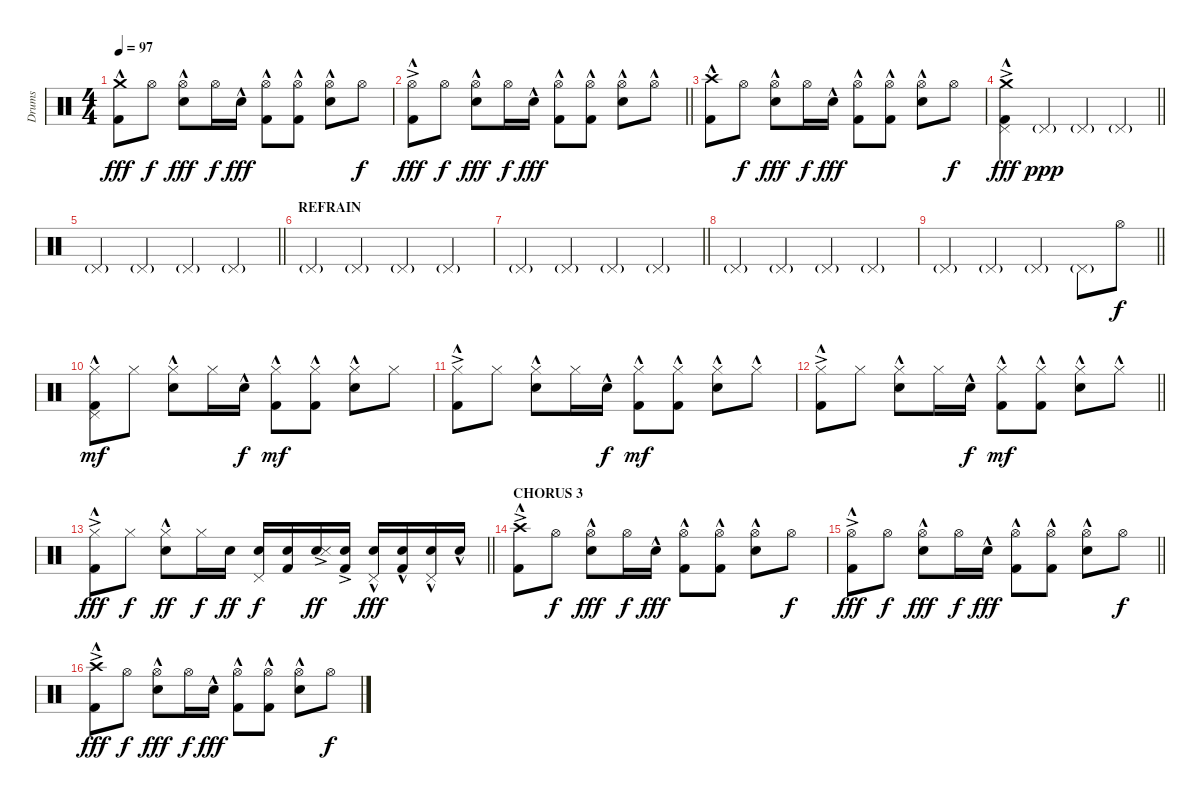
\track ("Drums" "Drums") {instrument percussion}
\staff {score}
\articulation defaults
\ts (4 4)
\tempo 97
\clef neutral
\ks c
("Crash medium (hit)" "Kick (hit) 2"{hac}).8{dy fff} "Hi-Hat (open)".8{dy f} ("Hi-Hat (open)" "Snare (hit) 2"{hac}).8{dy fff} "Hi-Hat (open)".16{dy f} "Snare (hit) 2"{hac}.16{dy fff} ("Hi-Hat (open)" "Kick (hit) 2"{hac}).8 ("Hi-Hat (open)" "Kick (hit) 2"{hac}).8 ("Hi-Hat (open)" "Snare (hit) 2"{hac}).8 "Hi-Hat (open)".8{dy f} |
\barLineRight lightlight
("Hi-Hat (open)"{ac} "Kick (hit) 2"{hac}).8{dy fff} "Hi-Hat (open)".8{dy f} ("Hi-Hat (open)" "Snare (hit) 2"{hac}).8{dy fff} "Hi-Hat (open)".16{dy f} "Snare (hit) 2"{hac}.16{dy fff} ("Hi-Hat (open)" "Kick (hit) 2"{hac}).8 ("Hi-Hat (open)" "Kick (hit) 2"{hac}).8 ("Hi-Hat (open)" "Snare (hit) 2"{hac}).8 "Hi-Hat (open)"{hac}.8 |
("Crash high (hit)"{hac} "Kick (hit) 2"{hac}).8 "Hi-Hat (open)".8{dy f} ("Hi-Hat (open)" "Snare (hit) 2"{hac}).8{dy fff} "Hi-Hat (open)".16{dy f} "Snare (hit) 2"{hac}.16{dy fff} ("Hi-Hat (open)" "Kick (hit) 2"{hac}).8 ("Hi-Hat (open)" "Kick (hit) 2"{hac}).8 ("Hi-Hat (open)" "Snare (hit) 2"{hac}).8 "Hi-Hat (open)".8{dy f} |
\barLineRight lightlight
("Crash medium (hit)"{ac} "Pedal Hi-Hat (hit)" "Kick (hit) 2"{hac}).4{dy fff} "Pedal Hi-Hat (hit)"{g}.4{dy ppp} "Pedal Hi-Hat (hit)"{g}.4 "Pedal Hi-Hat (hit)"{g}.4 |
\barLineRight lightlight "Pedal Hi-Hat (hit)"{g}.4 "Pedal Hi-Hat (hit)"{g}.4 "Pedal Hi-Hat (hit)"{g}.4 "Pedal Hi-Hat (hit)"{g}.4
|
\section ("" "REFRAIN")
"Pedal Hi-Hat (hit)"{g}.4 "Pedal Hi-Hat (hit)"{g}.4 "Pedal Hi-Hat (hit)"{g}.4 "Pedal Hi-Hat (hit)"{g}.4 |
\barLineRight lightlight "Pedal Hi-Hat (hit)"{g}.4 "Pedal Hi-Hat (hit)"{g}.4 "Pedal Hi-Hat (hit)"{g}.4 "Pedal Hi-Hat (hit)"{g}.4
|
"Pedal Hi-Hat (hit)"{g}.4 "Pedal Hi-Hat (hit)"{g}.4 "Pedal Hi-Hat (hit)"{g}.4 "Pedal Hi-Hat (hit)"{g}.4 |
\barLineRight lightlight "Pedal Hi-Hat (hit)"{g}.4 "Pedal Hi-Hat (hit)"{g}.4 "Pedal Hi-Hat (hit)"{g}.4 "Pedal Hi-Hat (hit)"{g}.8 "Hi-Hat (open)".8{dy f}
|
("Hi-Hat (closed)" "Pedal Hi-Hat (hit)" "Kick (hit) 2"{hac}).8{dy mf} "Hi-Hat (closed)".8 ("Hi-Hat (closed)" "Snare (hit) 2"{hac}).8 "Hi-Hat (closed)".16 "Snare (hit) 2"{hac}.16{dy f} ("Hi-Hat (closed)" "Kick (hit) 2"{hac}).8{dy mf} ("Hi-Hat (closed)" "Kick (hit) 2"{hac}).8 ("Hi-Hat (closed)" "Snare (hit) 2"{hac}).8 "Hi-Hat (closed)".8 |
("Hi-Hat (closed)"{ac} "Kick (hit) 2"{hac}).8 "Hi-Hat (closed)".8 ("Hi-Hat (closed)" "Snare (hit) 2"{hac}).8 "Hi-Hat (closed)".16 "Snare (hit) 2"{hac}.16{dy f} ("Hi-Hat (closed)" "Kick (hit) 2"{hac}).8{dy mf} ("Hi-Hat (closed)" "Kick (hit) 2"{hac}).8 ("Hi-Hat (closed)" "Snare (hit) 2"{hac}).8 "Hi-Hat (closed)"{hac}.8 |
\barLineRight lightlight
("Hi-Hat (closed)"{ac} "Kick (hit) 2"{hac}).8 "Hi-Hat (closed)".8 ("Hi-Hat (closed)" "Snare (hit) 2"{hac}).8 "Hi-Hat (closed)".16 "Snare (hit) 2"{hac}.16{dy f} ("Hi-Hat (closed)" "Kick (hit) 2"{hac}).8{dy mf} ("Hi-Hat (closed)" "Kick (hit) 2"{hac}).8 ("Hi-Hat (closed)" "Snare (hit) 2"{hac}).8 "Hi-Hat (closed)"{hac}.8 |
\barLineRight lightlight
("Hi-Hat (closed)"{ac} "Kick (hit) 2"{hac}).8{dy fff} "Hi-Hat (closed)".8{dy f} ("Hi-Hat (closed)" "Snare (hit) 2"{hac}).8{dy ff} "Hi-Hat (closed)".16{dy f} "Snare (hit) 2".16{dy ff} ("Snare (hit) 2" "Pedal Hi-Hat (hit)").16{dy f} ("Snare (hit) 2" "Kick (hit) 2").16 ("Snare (hit) 2"{ac} "Metronome (hit)").16{dy ff} ("Snare (hit) 2"{ac} "Kick (hit) 2").16 ("Snare (hit) 2"{hac} "Pedal Hi-Hat (hit)").16{dy fff} ("Snare (hit) 2"{hac} "Kick (hit) 2").16 ("Snare (hit) 2"{hac} "Pedal Hi-Hat (hit)").16 "Snare (hit) 2"{hac}.16 |
\section ("" "CHORUS 3")
("Crash high (hit)"{ac} "Kick (hit) 2"{hac}).8 "Hi-Hat (open)".8{dy f} ("Hi-Hat (open)" "Snare (hit) 2"{hac}).8{dy fff} "Hi-Hat (open)".16{dy f} "Snare (hit) 2"{hac}.16{dy fff} ("Hi-Hat (open)" "Kick (hit) 2"{hac}).8 ("Hi-Hat (open)" "Kick (hit) 2"{hac}).8 ("Hi-Hat (open)" "Snare (hit) 2"{hac}).8 "Hi-Hat (open)".8{dy f} |
\barLineRight lightlight
("Hi-Hat (open)"{ac} "Kick (hit) 2"{hac}).8{dy fff} "Hi-Hat (open)".8{dy f} ("Hi-Hat (open)" "Snare (hit) 2"{hac}).8{dy fff} "Hi-Hat (open)".16{dy f} "Snare (hit) 2"{hac}.16{dy fff} ("Hi-Hat (open)" "Kick (hit) 2"{hac}).8 ("Hi-Hat (open)" "Kick (hit) 2"{hac}).8 ("Hi-Hat (open)" "Snare (hit) 2"{hac}).8 "Hi-Hat (open)".8{dy f} |
("Crash high (hit)"{ac} "Kick (hit) 2"{hac}).8{dy fff} "Hi-Hat (open)".8{dy f} ("Hi-Hat (open)" "Snare (hit) 2"{hac}).8{dy fff} "Hi-Hat (open)".16{dy f} "Snare (hit) 2"{hac}.16{dy fff} ("Hi-Hat (open)" "Kick (hit) 2"{hac}).8 ("Hi-Hat (open)" "Kick (hit) 2"{hac}).8 ("Hi-Hat (open)" "Snare (hit) 2"{hac}).8 "Hi-Hat (open)".8{dy f}
